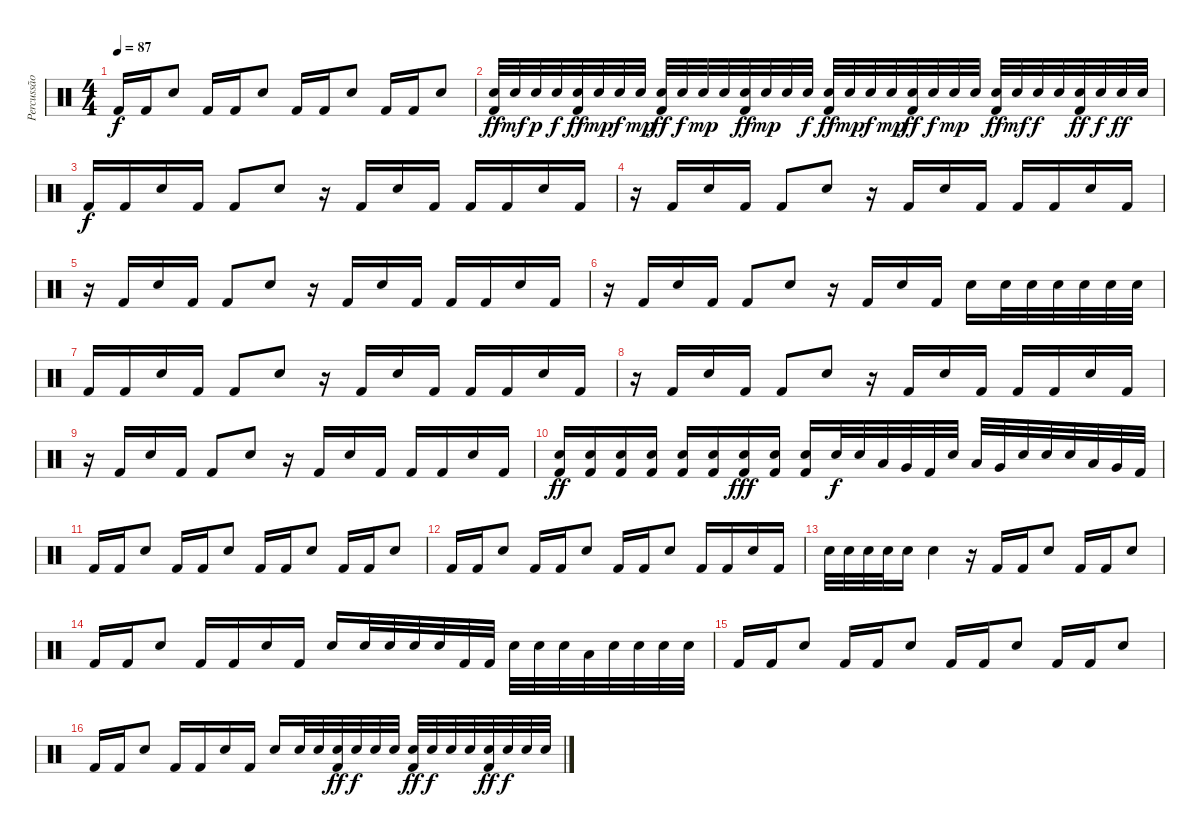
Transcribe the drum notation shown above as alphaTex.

\track ("Percussão" "Percussão") {instrument percussion}
\staff {score}
\articulation defaults
\ts (4 4)
\tempo 87
\clef neutral
\ks c "Kick (hit) 2".16{dy f} "Kick (hit) 2".16 "Electric Snare (hit)".8 "Kick (hit) 2".16 "Kick (hit) 2".16 "Electric Snare (hit)".8 "Kick (hit) 2".16 "Kick (hit) 2".16 "Electric Snare (hit)".8 "Kick (hit) 2".16 "Kick (hit) 2".16 "Electric Snare (hit)".8
|
("Electric Snare (hit)" "Kick (hit) 2").32{dy ff} "Electric Snare (hit)".32{dy mf} "Electric Snare (hit)".32{dy p} "Electric Snare (hit)".32{dy f} ("Electric Snare (hit)" "Kick (hit) 2").32{dy ff} "Electric Snare (hit)".32{dy mp} "Electric Snare (hit)".32{dy f} "Electric Snare (hit)".32{dy mp} ("Electric Snare (hit)" "Kick (hit) 2").32{dy ff} "Electric Snare (hit)".32{dy f} "Electric Snare (hit)".32{dy mp} "Electric Snare (hit)".32 ("Electric Snare (hit)" "Kick (hit) 2").32{dy ff} "Electric Snare (hit)".32{dy mp} "Electric Snare (hit)".32 "Electric Snare (hit)".32{dy f} ("Electric Snare (hit)" "Kick (hit) 2").32{dy ff} "Electric Snare (hit)".32{dy mp} "Electric Snare (hit)".32{dy f} "Electric Snare (hit)".32{dy mp} ("Electric Snare (hit)" "Kick (hit) 2").32{dy ff} "Electric Snare (hit)".32{dy f} "Electric Snare (hit)".32{dy mp} "Electric Snare (hit)".32 ("Electric Snare (hit)" "Kick (hit) 2").32{dy ff} "Electric Snare (hit)".32{dy mf} "Electric Snare (hit)".32{dy f} "Electric Snare (hit)".32 ("Electric Snare (hit)" "Kick (hit) 2").32{dy ff} "Electric Snare (hit)".32{dy f} "Electric Snare (hit)".32{dy ff} "Electric Snare (hit)".32 |
"Kick (hit) 2".16{dy f} "Kick (hit) 2".16 "Electric Snare (hit)".16 "Kick (hit) 2".16 "Kick (hit) 2".8 "Electric Snare (hit)".8 r.16 "Kick (hit) 2".16 "Electric Snare (hit)".16 "Kick (hit) 2".16 "Kick (hit) 2".16 "Kick (hit) 2".16 "Electric Snare (hit)".16 "Kick (hit) 2".16 |
r.16 "Kick (hit) 2".16 "Electric Snare (hit)".16 "Kick (hit) 2".16 "Kick (hit) 2".8 "Electric Snare (hit)".8 r.16 "Kick (hit) 2".16 "Electric Snare (hit)".16 "Kick (hit) 2".16 "Kick (hit) 2".16 "Kick (hit) 2".16 "Electric Snare (hit)".16 "Kick (hit) 2".16 |
r.16 "Kick (hit) 2".16 "Electric Snare (hit)".16 "Kick (hit) 2".16 "Kick (hit) 2".8 "Electric Snare (hit)".8 r.16 "Kick (hit) 2".16 "Electric Snare (hit)".16 "Kick (hit) 2".16 "Kick (hit) 2".16 "Kick (hit) 2".16 "Electric Snare (hit)".16 "Kick (hit) 2".16 |
r.16 "Kick (hit) 2".16 "Electric Snare (hit)".16 "Kick (hit) 2".16 "Kick (hit) 2".8 "Electric Snare (hit)".8 r.16 "Kick (hit) 2".16 "Electric Snare (hit)".16 "Kick (hit) 2".16 "Electric Snare (hit)".16 "Electric Snare (hit)".32 "Electric Snare (hit)".32 "Electric Snare (hit)".32 "Electric Snare (hit)".32 "Electric Snare (hit)".32 "Electric Snare (hit)".32 |
"Kick (hit) 2".16 "Kick (hit) 2".16 "Electric Snare (hit)".16 "Kick (hit) 2".16 "Kick (hit) 2".8 "Electric Snare (hit)".8 r.16 "Kick (hit) 2".16 "Electric Snare (hit)".16 "Kick (hit) 2".16 "Kick (hit) 2".16 "Kick (hit) 2".16 "Electric Snare (hit)".16 "Kick (hit) 2".16 |
r.16 "Kick (hit) 2".16 "Electric Snare (hit)".16 "Kick (hit) 2".16 "Kick (hit) 2".8 "Electric Snare (hit)".8 r.16 "Kick (hit) 2".16 "Electric Snare (hit)".16 "Kick (hit) 2".16 "Kick (hit) 2".16 "Kick (hit) 2".16 "Electric Snare (hit)".16 "Kick (hit) 2".16 |
r.16 "Kick (hit) 2".16 "Electric Snare (hit)".16 "Kick (hit) 2".16 "Kick (hit) 2".8 "Electric Snare (hit)".8 r.16 "Kick (hit) 2".16 "Electric Snare (hit)".16 "Kick (hit) 2".16 "Kick (hit) 2".16 "Kick (hit) 2".16 "Electric Snare (hit)".16 "Kick (hit) 2".16 |
("Electric Snare (hit)" "Kick (hit) 2").16{dy ff} ("Electric Snare (hit)" "Kick (hit) 2").16 ("Electric Snare (hit)" "Kick (hit) 2").16 ("Electric Snare (hit)" "Kick (hit) 2").16 ("Electric Snare (hit)" "Kick (hit) 2").16 ("Electric Snare (hit)" "Kick (hit) 2").16 ("Electric Snare (hit)" "Kick (hit) 2").16{dy fff} ("Electric Snare (hit)" "Kick (hit) 2").16 ("Electric Snare (hit)" "Kick (hit) 2").16 "Electric Snare (hit)".32{dy f} "Electric Snare (hit)".32 "Low Tom (hit)".32 "Very Low Tom (hit)".32 "Kick (hit) 2".32 "Electric Snare (hit)".32 "Low Tom (hit)".32 "Very Low Tom (hit)".32 "Electric Snare (hit)".32 "Electric Snare (hit)".32 "Electric Snare (hit)".32 "Low Tom (hit)".32 "Very Low Tom (hit)".32 "Kick (hit) 2".32 |
"Kick (hit) 2".16 "Kick (hit) 2".16 "Electric Snare (hit)".8 "Kick (hit) 2".16 "Kick (hit) 2".16 "Electric Snare (hit)".8 "Kick (hit) 2".16 "Kick (hit) 2".16 "Electric Snare (hit)".8 "Kick (hit) 2".16 "Kick (hit) 2".16 "Electric Snare (hit)".8 |
"Kick (hit) 2".16 "Kick (hit) 2".16 "Electric Snare (hit)".8 "Kick (hit) 2".16 "Kick (hit) 2".16 "Electric Snare (hit)".8 "Kick (hit) 2".16 "Kick (hit) 2".16 "Electric Snare (hit)".8 "Kick (hit) 2".16 "Kick (hit) 2".16 "Electric Snare (hit)".16 "Kick (hit) 2".16 |
"Electric Snare (hit)".32 "Electric Snare (hit)".32 "Electric Snare (hit)".32 "Electric Snare (hit)".32 "Electric Snare (hit)".16 "Electric Snare (hit)".4 r.16 "Kick (hit) 2".16 "Kick (hit) 2".16 "Electric Snare (hit)".8 "Kick (hit) 2".16 "Kick (hit) 2".16 "Electric Snare (hit)".8 |
"Kick (hit) 2".16 "Kick (hit) 2".16 "Electric Snare (hit)".8 "Kick (hit) 2".16 "Kick (hit) 2".16 "Electric Snare (hit)".16 "Kick (hit) 2".16 "Electric Snare (hit)".16 "Electric Snare (hit)".32 "Electric Snare (hit)".32 "Electric Snare (hit)".32 "Electric Snare (hit)".32 "Kick (hit) 2".32 "Kick (hit) 2".32 "Electric Snare (hit)".32 "Electric Snare (hit)".32 "Electric Snare (hit)".32 "Low Tom (hit)".32 "Electric Snare (hit)".32 "Electric Snare (hit)".32 "Electric Snare (hit)".32 "Electric Snare (hit)".32 |
"Kick (hit) 2".16 "Kick (hit) 2".16 "Electric Snare (hit)".8 "Kick (hit) 2".16 "Kick (hit) 2".16 "Electric Snare (hit)".8 "Kick (hit) 2".16 "Kick (hit) 2".16 "Electric Snare (hit)".8 "Kick (hit) 2".16 "Kick (hit) 2".16 "Electric Snare (hit)".8 |
"Kick (hit) 2".16 "Kick (hit) 2".16 "Electric Snare (hit)".8 "Kick (hit) 2".16 "Kick (hit) 2".16 "Electric Snare (hit)".16 "Kick (hit) 2".16 "Electric Snare (hit)".16 "Electric Snare (hit)".32 "Electric Snare (hit)".32 ("Electric Snare (hit)" "Kick (hit) 2").32{dy ff} "Electric Snare (hit)".32{dy f} "Electric Snare (hit)".32 "Electric Snare (hit)".32 ("Electric Snare (hit)" "Kick (hit) 2").32{dy ff} "Electric Snare (hit)".32{dy f} "Electric Snare (hit)".32 "Electric Snare (hit)".32 ("Electric Snare (hit)" "Kick (hit) 2").32{dy ff} "Electric Snare (hit)".32{dy f} "Electric Snare (hit)".32 "Electric Snare (hit)".32
